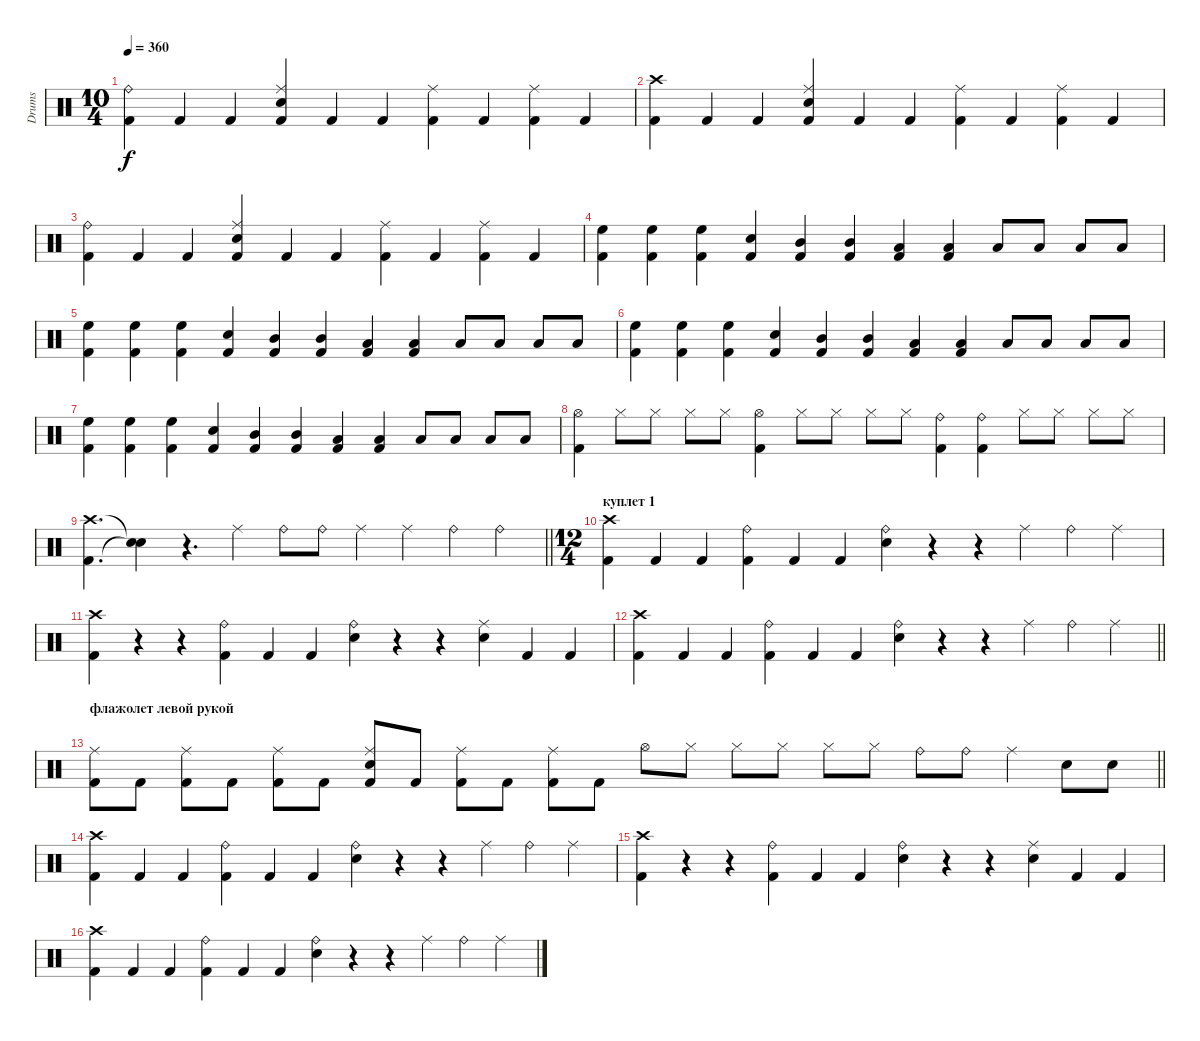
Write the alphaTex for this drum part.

\track ("Drums" "Drums") {mute instrument percussion}
\staff {score}
\articulation defaults
\ts (10 4)
\tempo 360
\clef neutral
\ks c
("Ride (bell)" "Kick (hit) 2").4{dy f} "Kick (hit) 2".4 "Kick (hit) 2".4 ("Ride (middle)" "Snare (hit) 2" "Kick (hit) 2").4 "Kick (hit) 2".4 "Kick (hit) 2".4 ("Ride (middle)" "Kick (hit) 2").4 "Kick (hit) 2".4 ("Ride (middle)" "Kick (hit) 2").4 "Kick (hit) 2".4 |
("Crash high (hit)" "Kick (hit) 2").4 "Kick (hit) 2".4 "Kick (hit) 2".4 ("Ride (middle)" "Snare (hit) 2" "Kick (hit) 2").4 "Kick (hit) 2".4 "Kick (hit) 2".4 ("Ride (middle)" "Kick (hit) 2").4 "Kick (hit) 2".4 ("Ride (middle)" "Kick (hit) 2").4 "Kick (hit) 2".4 |
("Ride (bell)" "Kick (hit) 2").4 "Kick (hit) 2".4 "Kick (hit) 2".4 ("Ride (middle)" "Snare (hit) 2" "Kick (hit) 2").4 "Kick (hit) 2".4 "Kick (hit) 2".4 ("Ride (middle)" "Kick (hit) 2").4 "Kick (hit) 2".4 ("Ride (middle)" "Kick (hit) 2").4 "Kick (hit) 2".4 |
("High Floor Tom (hit)" "Kick (hit) 2").4 ("High Floor Tom (hit)" "Kick (hit) 2").4 ("High Floor Tom (hit)" "Kick (hit) 2").4 ("Snare (hit) 2" "Kick (hit) 2").4 ("Mid Tom (hit)" "Kick (hit) 2").4 ("Mid Tom (hit)" "Kick (hit) 2").4 ("Low Tom (hit)" "Kick (hit) 2").4 ("Low Tom (hit)" "Kick (hit) 2").4 "Low Tom (hit)".8 "Low Tom (hit)".8 "Low Tom (hit)".8 "Low Tom (hit)".8 |
("High Floor Tom (hit)" "Kick (hit) 2").4 ("High Floor Tom (hit)" "Kick (hit) 2").4 ("High Floor Tom (hit)" "Kick (hit) 2").4 ("Snare (hit) 2" "Kick (hit) 2").4 ("Mid Tom (hit)" "Kick (hit) 2").4 ("Mid Tom (hit)" "Kick (hit) 2").4 ("Low Tom (hit)" "Kick (hit) 2").4 ("Low Tom (hit)" "Kick (hit) 2").4 "Low Tom (hit)".8 "Low Tom (hit)".8 "Low Tom (hit)".8 "Low Tom (hit)".8 |
("High Floor Tom (hit)" "Kick (hit) 2").4 ("High Floor Tom (hit)" "Kick (hit) 2").4 ("High Floor Tom (hit)" "Kick (hit) 2").4 ("Snare (hit) 2" "Kick (hit) 2").4 ("Mid Tom (hit)" "Kick (hit) 2").4 ("Mid Tom (hit)" "Kick (hit) 2").4 ("Low Tom (hit)" "Kick (hit) 2").4 ("Low Tom (hit)" "Kick (hit) 2").4 "Low Tom (hit)".8 "Low Tom (hit)".8 "Low Tom (hit)".8 "Low Tom (hit)".8 |
("High Floor Tom (hit)" "Kick (hit) 2").4 ("High Floor Tom (hit)" "Kick (hit) 2").4 ("High Floor Tom (hit)" "Kick (hit) 2").4 ("Snare (hit) 2" "Kick (hit) 2").4 ("Mid Tom (hit)" "Kick (hit) 2").4 ("Mid Tom (hit)" "Kick (hit) 2").4 ("Low Tom (hit)" "Kick (hit) 2").4 ("Low Tom (hit)" "Kick (hit) 2").4 "Low Tom (hit)".8 "Low Tom (hit)".8 "Low Tom (hit)".8 "Low Tom (hit)".8 |
("Kick (hit) 2" "Hi-Hat (open)").4 "Hi-Hat (closed)".8 "Hi-Hat (closed)".8 "Hi-Hat (closed)".8 "Hi-Hat (closed)".8 ("Kick (hit) 2" "Hi-Hat (open)").4 "Hi-Hat (closed)".8 "Hi-Hat (closed)".8 "Hi-Hat (closed)".8 "Hi-Hat (closed)".8 ("Kick (hit) 2" "Ride (bell)").4 ("Kick (hit) 2" "Ride (bell)").4 "Hi-Hat (closed)".8 "Hi-Hat (closed)".8 "Hi-Hat (closed)".8 "Hi-Hat (closed)".8 |
\barLineRight lightlight
("Crash high (hit)" "Kick (hit) 2").4{d} ("Snare (hit)"{t} "Snare (hit)"{t}).4 r.4{d} "Ride (middle)".4 "Ride (bell)".8 "Ride (bell)".8 "Ride (middle)".4 "Ride (middle)".4 "Ride (bell)".4 "Ride (bell)".4 |
\ts (12 4)
\section ("" "куплет 1")
("Kick (hit) 2" "Crash high (hit)").4 "Kick (hit) 2".4 "Kick (hit) 2".4 ("Kick (hit) 2" "Ride (bell)").4 "Kick (hit) 2".4 "Kick (hit) 2".4 ("Ride (bell)" "Snare (hit) 2").4 r.4 r.4 "Ride (middle)".4 "Ride (bell)".4 "Ride (middle)".4 |
("Kick (hit) 2" "Crash high (hit)").4 r.4 r.4 ("Kick (hit) 2" "Ride (bell)").4 "Kick (hit) 2".4 "Kick (hit) 2".4 ("Ride (bell)" "Snare (hit) 2").4 r.4 r.4 ("Snare (hit) 2" "Ride (middle)").4 "Kick (hit) 2".4 "Kick (hit) 2".4 |
\barLineRight lightlight
("Kick (hit) 2" "Crash high (hit)").4 "Kick (hit) 2".4 "Kick (hit) 2".4 ("Kick (hit) 2" "Ride (bell)").4 "Kick (hit) 2".4 "Kick (hit) 2".4 ("Ride (bell)" "Snare (hit) 2").4 r.4 r.4 "Ride (middle)".4 "Ride (bell)".4 "Ride (middle)".4 |
\section ("" "флажолет левой рукой")
\barLineRight lightlight
("Ride (middle)" "Kick (hit) 2").8 "Kick (hit) 2".8 ("Ride (middle)" "Kick (hit) 2").8 "Kick (hit) 2".8 ("Ride (middle)" "Kick (hit) 2").8 "Kick (hit) 2".8 ("Ride (middle)" "Kick (hit) 2" "Snare (hit) 2").8 "Kick (hit) 2".8 ("Ride (middle)" "Kick (hit) 2").8 "Kick (hit) 2".8 ("Ride (middle)" "Kick (hit) 2").8 "Kick (hit) 2".8 "Hi-Hat (open)".8 "Hi-Hat (closed)".8 "Hi-Hat (closed)".8 "Hi-Hat (closed)".8 "Hi-Hat (closed)".8 "Hi-Hat (closed)".8 "Ride (bell)".8 "Ride (bell)".8 "Ride (middle)".4 "Snare (hit) 2".8 "Snare (hit) 2".8 |
("Kick (hit) 2" "Crash high (hit)").4 "Kick (hit) 2".4 "Kick (hit) 2".4 ("Kick (hit) 2" "Ride (bell)").4 "Kick (hit) 2".4 "Kick (hit) 2".4 ("Ride (bell)" "Snare (hit) 2").4 r.4 r.4 "Ride (middle)".4 "Ride (bell)".4 "Ride (middle)".4 |
("Kick (hit) 2" "Crash high (hit)").4 r.4 r.4 ("Kick (hit) 2" "Ride (bell)").4 "Kick (hit) 2".4 "Kick (hit) 2".4 ("Ride (bell)" "Snare (hit) 2").4 r.4 r.4 ("Snare (hit) 2" "Ride (middle)").4 "Kick (hit) 2".4 "Kick (hit) 2".4 |
("Kick (hit) 2" "Crash high (hit)").4 "Kick (hit) 2".4 "Kick (hit) 2".4 ("Kick (hit) 2" "Ride (bell)").4 "Kick (hit) 2".4 "Kick (hit) 2".4 ("Ride (bell)" "Snare (hit) 2").4 r.4 r.4 "Ride (middle)".4 "Ride (bell)".4 "Ride (middle)".4
